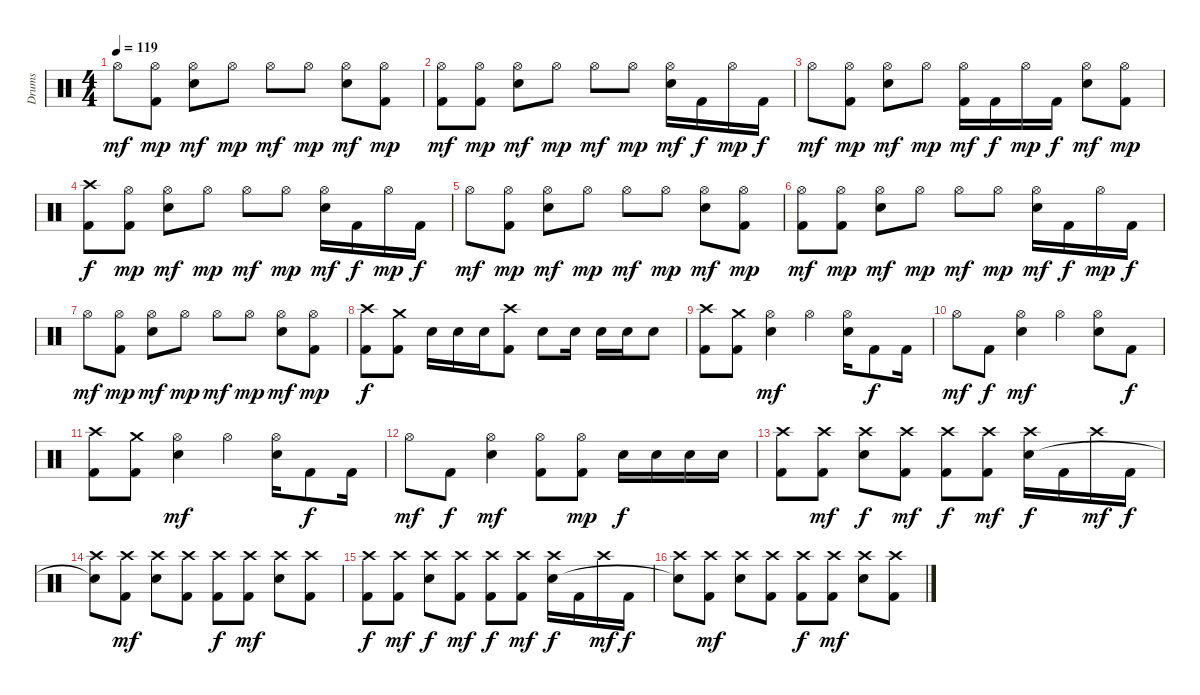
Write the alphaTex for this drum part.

\track ("Drums" "Drums") {instrument percussion}
\staff {score}
\articulation defaults
\ts (4 4)
\tempo 119
\clef neutral
\ks c "Hi-Hat (open)".8{dy mf}
("Hi-Hat (open)" "Kick (hit) 2").8{dy mp} ("Hi-Hat (open)" "Electric Snare (hit)").8{dy mf} "Hi-Hat (open)".8{dy mp} "Hi-Hat (open)".8{dy mf} "Hi-Hat (open)".8{dy mp} ("Hi-Hat (open)" "Electric Snare (hit)").8{dy mf} ("Hi-Hat (open)" "Kick (hit) 2").8{dy mp} |
("Hi-Hat (open)" "Kick (hit) 2").8{dy mf} ("Hi-Hat (open)" "Kick (hit) 2").8{dy mp} ("Hi-Hat (open)" "Electric Snare (hit)").8{dy mf} "Hi-Hat (open)".8{dy mp} "Hi-Hat (open)".8{dy mf} "Hi-Hat (open)".8{dy mp} ("Hi-Hat (open)" "Electric Snare (hit)").16{dy mf} "Kick (hit) 2".16{dy f} "Hi-Hat (open)".16{dy mp} "Kick (hit) 2".16{dy f} |
"Hi-Hat (open)".8{dy mf} ("Hi-Hat (open)" "Kick (hit) 2").8{dy mp} ("Hi-Hat (open)" "Electric Snare (hit)").8{dy mf} "Hi-Hat (open)".8{dy mp} ("Hi-Hat (open)" "Kick (hit) 2").16{dy mf} "Kick (hit) 2".16{dy f} "Hi-Hat (open)".16{dy mp} "Kick (hit) 2".16{dy f} ("Hi-Hat (open)" "Electric Snare (hit)").8{dy mf} ("Hi-Hat (open)" "Kick (hit) 2").8{dy mp} |
("Crash high (hit)" "Kick (hit) 2").8{dy f} ("Hi-Hat (open)" "Kick (hit) 2").8{dy mp} ("Hi-Hat (open)" "Electric Snare (hit)").8{dy mf} "Hi-Hat (open)".8{dy mp} "Hi-Hat (open)".8{dy mf} "Hi-Hat (open)".8{dy mp} ("Hi-Hat (open)" "Electric Snare (hit)").16{dy mf} "Kick (hit) 2".16{dy f} "Hi-Hat (open)".16{dy mp} "Kick (hit) 2".16{dy f} |
"Hi-Hat (open)".8{dy mf} ("Hi-Hat (open)" "Kick (hit) 2").8{dy mp} ("Hi-Hat (open)" "Electric Snare (hit)").8{dy mf} "Hi-Hat (open)".8{dy mp} "Hi-Hat (open)".8{dy mf} "Hi-Hat (open)".8{dy mp} ("Hi-Hat (open)" "Electric Snare (hit)").8{dy mf} ("Hi-Hat (open)" "Kick (hit) 2").8{dy mp} |
("Hi-Hat (open)" "Kick (hit) 2").8{dy mf} ("Hi-Hat (open)" "Kick (hit) 2").8{dy mp} ("Hi-Hat (open)" "Electric Snare (hit)").8{dy mf} "Hi-Hat (open)".8{dy mp} "Hi-Hat (open)".8{dy mf} "Hi-Hat (open)".8{dy mp} ("Hi-Hat (open)" "Electric Snare (hit)").16{dy mf} "Kick (hit) 2".16{dy f} "Hi-Hat (open)".16{dy mp} "Kick (hit) 2".16{dy f} |
"Hi-Hat (open)".8{dy mf} ("Hi-Hat (open)" "Kick (hit) 2").8{dy mp} ("Hi-Hat (open)" "Electric Snare (hit)").8{dy mf} "Hi-Hat (open)".8{dy mp} "Hi-Hat (open)".8{dy mf} "Hi-Hat (open)".8{dy mp} ("Hi-Hat (open)" "Electric Snare (hit)").8{dy mf} ("Hi-Hat (open)" "Kick (hit) 2").8{dy mp} |
("Crash high (hit)" "Kick (hit) 2").8{dy f} ("Crash medium (hit)" "Kick (hit) 2").8 "Electric Snare (hit)".16 "Electric Snare (hit)".16 "Electric Snare (hit)".16 ("Crash high (hit)" "Kick (hit) 2").8 "Electric Snare (hit)".8 "Electric Snare (hit)".16 "Electric Snare (hit)".16 "Electric Snare (hit)".16 "Electric Snare (hit)".8 |
("Crash high (hit)" "Kick (hit) 2").8 ("Crash medium (hit)" "Kick (hit) 2").8 ("Hi-Hat (open)" "Electric Snare (hit)").4{dy mf} "Hi-Hat (open)".4 ("Hi-Hat (open)" "Electric Snare (hit)").16 "Kick (hit) 2".8{dy f} "Kick (hit) 2".16 |
"Hi-Hat (open)".8{dy mf} "Kick (hit) 2".8{dy f} ("Hi-Hat (open)" "Electric Snare (hit)").4{dy mf} "Hi-Hat (open)".4 ("Hi-Hat (open)" "Electric Snare (hit)").8 "Kick (hit) 2".8{dy f} |
("Crash high (hit)" "Kick (hit) 2").8 ("Crash medium (hit)" "Kick (hit) 2").8 ("Hi-Hat (open)" "Electric Snare (hit)").4{dy mf} "Hi-Hat (open)".4 ("Hi-Hat (open)" "Electric Snare (hit)").16 "Kick (hit) 2".8{dy f} "Kick (hit) 2".16 |
"Hi-Hat (open)".8{dy mf} "Kick (hit) 2".8{dy f} ("Hi-Hat (open)" "Electric Snare (hit)").4{dy mf} ("Hi-Hat (open)" "Kick (hit) 2").8 ("Hi-Hat (open)" "Kick (hit) 2").8{dy mp} "Electric Snare (hit)".16{dy f} "Electric Snare (hit)".16 "Electric Snare (hit)".16 "Electric Snare (hit)".16 |
("Crash high (hit)" "Kick (hit) 2").8 ("Crash high (hit)" "Kick (hit) 2").8{dy mf} ("Crash high (hit)" "Electric Snare (hit)").8{dy f} ("Crash high (hit)" "Kick (hit) 2").8{dy mf} ("Crash high (hit)" "Kick (hit) 2").8{dy f} ("Crash high (hit)" "Kick (hit) 2").8{dy mf} ("Crash high (hit)" "Electric Snare (hit)").16{dy f} "Kick (hit) 2".16 "Crash high (hit)".16{dy mf} "Kick (hit) 2".16{dy f} |
("Crash high (hit)" "Snare (hit)"{t}).8 ("Crash high (hit)" "Kick (hit) 2").8{dy mf} ("Crash high (hit)" "Electric Snare (hit)").8 ("Crash high (hit)" "Kick (hit) 2").8 ("Crash high (hit)" "Kick (hit) 2").8{dy f} ("Crash high (hit)" "Kick (hit) 2").8{dy mf} ("Crash high (hit)" "Electric Snare (hit)").8 ("Crash high (hit)" "Kick (hit) 2").8 |
("Crash high (hit)" "Kick (hit) 2").8{dy f} ("Crash high (hit)" "Kick (hit) 2").8{dy mf} ("Crash high (hit)" "Electric Snare (hit)").8{dy f} ("Crash high (hit)" "Kick (hit) 2").8{dy mf} ("Crash high (hit)" "Kick (hit) 2").8{dy f} ("Crash high (hit)" "Kick (hit) 2").8{dy mf} ("Crash high (hit)" "Electric Snare (hit)").16{dy f} "Kick (hit) 2".16 "Crash high (hit)".16{dy mf} "Kick (hit) 2".16{dy f} |
("Crash high (hit)" "Snare (hit)"{t}).8 ("Crash high (hit)" "Kick (hit) 2").8{dy mf} ("Crash high (hit)" "Electric Snare (hit)").8 ("Crash high (hit)" "Kick (hit) 2").8 ("Crash high (hit)" "Kick (hit) 2").8{dy f} ("Crash high (hit)" "Kick (hit) 2").8{dy mf} ("Crash high (hit)" "Electric Snare (hit)").8 ("Crash high (hit)" "Kick (hit) 2").8
